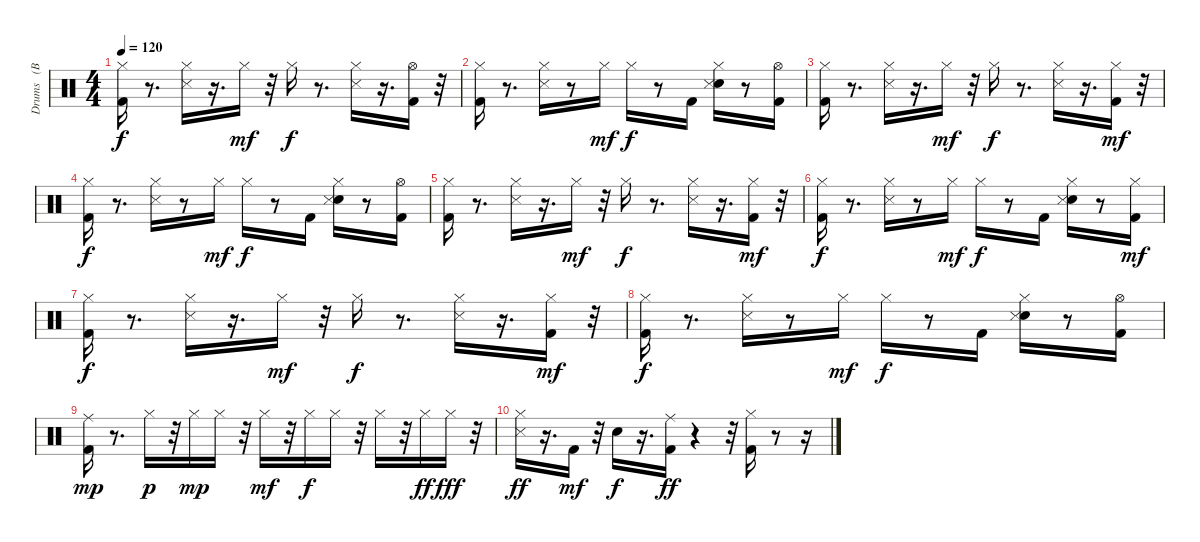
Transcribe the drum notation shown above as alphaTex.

\track ("Drums   (BB)" "Drums   (B") {instrument percussion}
\staff {score}
\articulation defaults
\ts (4 4)
\tempo 120
\clef neutral
\ks c
("Kick (hit) 2" "Hi-Hat (closed)").16{dy f} r.8{d} ("Hi-Hat (closed)" "Snare (side stick) 3").16 r.16{d} "Hi-Hat (closed)".16{dy mf} r.32 "Hi-Hat (closed)".16{dy f} r.8{d} ("Hi-Hat (closed)" "Snare (side stick) 3").16 r.16{d} ("Kick (hit) 2" "Hi-Hat (open)").16 r.32 |
("Kick (hit) 2" "Hi-Hat (closed)").16 r.8{d} ("Hi-Hat (closed)" "Snare (side stick) 3").16 r.8 "Hi-Hat (closed)".16{dy mf} "Hi-Hat (closed)".16{dy f} r.8 "Kick (hit) 2".16 ("Snare (hit) 2" "Hi-Hat (closed)" "Snare (side stick) 3").16 r.8 ("Kick (hit) 2" "Hi-Hat (open)").16 |
("Kick (hit) 2" "Hi-Hat (closed)").16 r.8{d} ("Hi-Hat (closed)" "Snare (side stick) 3").16 r.16{d} "Hi-Hat (closed)".16{dy mf} r.32 "Hi-Hat (closed)".16{dy f} r.8{d} ("Hi-Hat (closed)" "Snare (side stick) 3").16 r.16{d} ("Kick (hit) 2" "Hi-Hat (closed)").16{dy mf} r.32 |
("Kick (hit) 2" "Hi-Hat (closed)").16{dy f} r.8{d} ("Hi-Hat (closed)" "Snare (side stick) 3").16 r.8 "Hi-Hat (closed)".16{dy mf} "Hi-Hat (closed)".16{dy f} r.8 "Kick (hit) 2".16 ("Snare (hit) 2" "Hi-Hat (closed)" "Snare (side stick) 3").16 r.8 ("Kick (hit) 2" "Hi-Hat (open)").16 |
("Kick (hit) 2" "Hi-Hat (closed)").16 r.8{d} ("Hi-Hat (closed)" "Snare (side stick) 3").16 r.16{d} "Hi-Hat (closed)".16{dy mf} r.32 "Hi-Hat (closed)".16{dy f} r.8{d} ("Hi-Hat (closed)" "Snare (side stick) 3").16 r.16{d} ("Kick (hit) 2" "Hi-Hat (closed)").16{dy mf} r.32 |
("Kick (hit) 2" "Hi-Hat (closed)").16{dy f} r.8{d} ("Hi-Hat (closed)" "Snare (side stick) 3").16 r.8 "Hi-Hat (closed)".16{dy mf} "Hi-Hat (closed)".16{dy f} r.8 "Kick (hit) 2".16 ("Snare (hit) 2" "Hi-Hat (closed)" "Snare (side stick) 3").16 r.8 ("Kick (hit) 2" "Hi-Hat (closed)").16{dy mf} |
("Kick (hit) 2" "Hi-Hat (closed)").16{dy f} r.8{d} ("Hi-Hat (closed)" "Snare (side stick) 3").16 r.16{d} "Hi-Hat (closed)".16{dy mf} r.32 "Hi-Hat (closed)".16{dy f} r.8{d} ("Hi-Hat (closed)" "Snare (side stick) 3").16 r.16{d} ("Kick (hit) 2" "Hi-Hat (closed)").16{dy mf} r.32 |
("Kick (hit) 2" "Hi-Hat (closed)").16{dy f} r.8{d} ("Hi-Hat (closed)" "Snare (side stick) 3").16 r.8 "Hi-Hat (closed)".16{dy mf} "Hi-Hat (closed)".16{dy f} r.8 "Kick (hit) 2".16 ("Snare (hit) 2" "Hi-Hat (closed)" "Snare (side stick) 3").16 r.8 ("Kick (hit) 2" "Hi-Hat (open)").16 |
("Kick (hit) 2" "Ride (middle)").16{dy mp} r.8{d} "Hi-Hat (closed)".16{dy p} r.32 "Hi-Hat (closed)".16{dy mp} "Hi-Hat (closed)".16 r.32 "Hi-Hat (closed)".16{dy mf} r.32 "Hi-Hat (closed)".16{dy f} "Hi-Hat (closed)".16 r.32 "Hi-Hat (closed)".16 r.32 "Hi-Hat (closed)".16{dy ff} "Hi-Hat (closed)".16{dy fff} r.32 |
("Hi-Hat (closed)" "Snare (side stick) 3").16{dy ff} r.16{d} "Kick (hit) 2".16{dy mf} r.32 "Snare (hit) 2".16{dy f} r.16{d} ("Kick (hit) 2" "Ride (middle)").16{dy ff} r.4 r.32 ("Kick (hit) 2" "Hi-Hat (closed)").16 r.8 r.16
